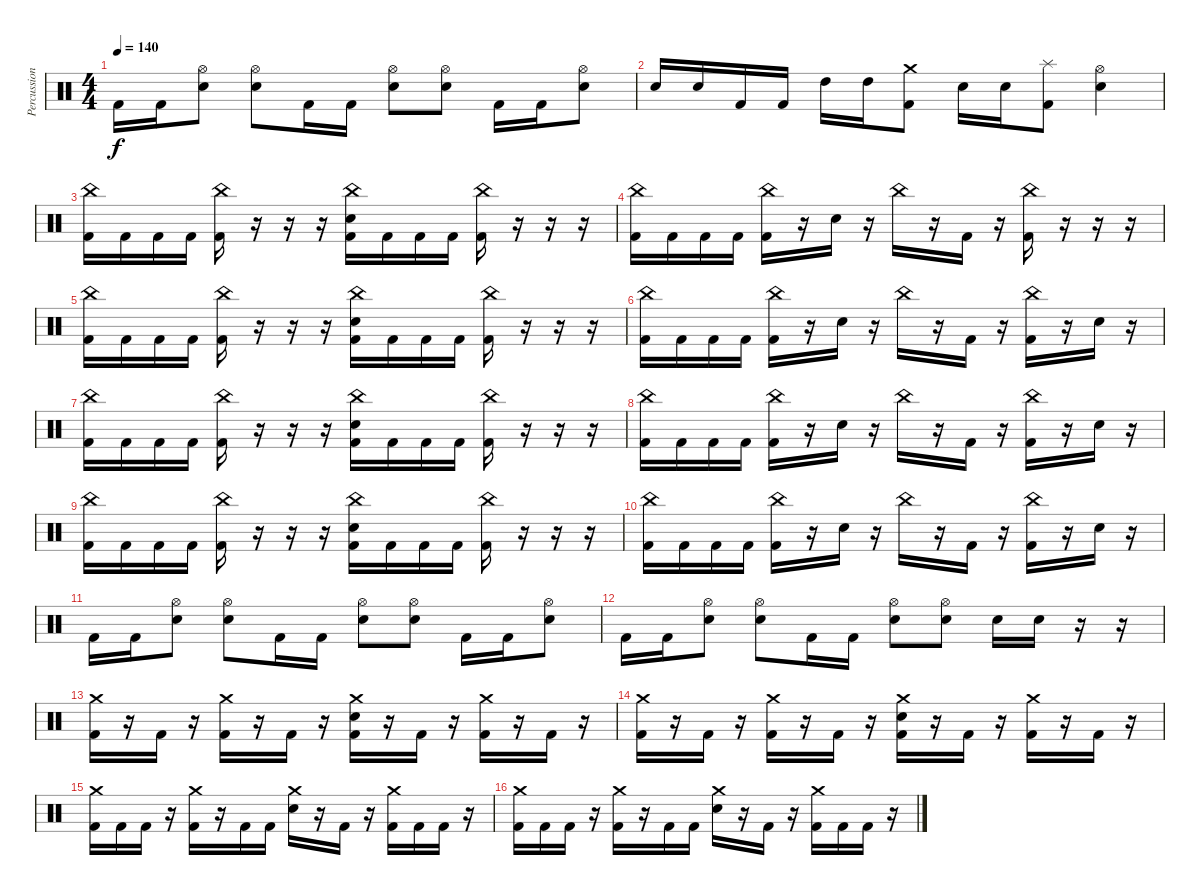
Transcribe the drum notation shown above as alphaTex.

\track ("Percussion" "Percussion") {instrument percussion}
\staff {score}
\articulation defaults
\ts (4 4)
\tempo 140
\clef neutral
\ks c "Kick (hit) 2".16{dy f} "Kick (hit) 2".16
("Hi-Hat (open)" "Electric Snare (hit)").8 ("Hi-Hat (open)" "Electric Snare (hit)").8 "Kick (hit) 2".16 "Kick (hit) 2".16 ("Hi-Hat (open)" "Electric Snare (hit)").8 ("Hi-Hat (open)" "Electric Snare (hit)").8 "Kick (hit) 2".16 "Kick (hit) 2".16 ("Hi-Hat (open)" "Electric Snare (hit)").8 |
"Electric Snare (hit)".16 "Electric Snare (hit)".16 "Kick (hit) 2".16 "Kick (hit) 2".16 "High Tom (hit)".16 "High Tom (hit)".16 ("Crash medium (hit)" "Kick (hit) 2").8 "Electric Snare (hit)".16 "Electric Snare (hit)".16 ("Splash (hit)" "Kick (hit) 2").8 ("Hi-Hat (open)" "Electric Snare (hit)").4 |
("China (hit)" "Kick (hit) 2").16 "Kick (hit) 2".16 "Kick (hit) 2".16 "Kick (hit) 2".16 ("China (hit)" "Kick (hit) 2").16 r.16 r.16 r.16 ("China (hit)" "Electric Snare (hit)" "Kick (hit) 2").16 "Kick (hit) 2".16 "Kick (hit) 2".16 "Kick (hit) 2".16 ("China (hit)" "Kick (hit) 2").16 r.16 r.16 r.16 |
("China (hit)" "Kick (hit) 2").16 "Kick (hit) 2".16 "Kick (hit) 2".16 "Kick (hit) 2".16 ("China (hit)" "Kick (hit) 2").16 r.16 "Electric Snare (hit)".16 r.16 "China (hit)".16 r.16 "Kick (hit) 2".16 r.16 ("China (hit)" "Kick (hit) 2").16 r.16 r.16 r.16 |
("China (hit)" "Kick (hit) 2").16 "Kick (hit) 2".16 "Kick (hit) 2".16 "Kick (hit) 2".16 ("China (hit)" "Kick (hit) 2").16 r.16 r.16 r.16 ("China (hit)" "Electric Snare (hit)" "Kick (hit) 2").16 "Kick (hit) 2".16 "Kick (hit) 2".16 "Kick (hit) 2".16 ("China (hit)" "Kick (hit) 2").16 r.16 r.16 r.16 |
("China (hit)" "Kick (hit) 2").16 "Kick (hit) 2".16 "Kick (hit) 2".16 "Kick (hit) 2".16 ("China (hit)" "Kick (hit) 2").16 r.16 "Electric Snare (hit)".16 r.16 "China (hit)".16 r.16 "Kick (hit) 2".16 r.16 ("China (hit)" "Kick (hit) 2").16 r.16 "Electric Snare (hit)".16 r.16 |
("China (hit)" "Kick (hit) 2").16 "Kick (hit) 2".16 "Kick (hit) 2".16 "Kick (hit) 2".16 ("China (hit)" "Kick (hit) 2").16 r.16 r.16 r.16 ("China (hit)" "Electric Snare (hit)" "Kick (hit) 2").16 "Kick (hit) 2".16 "Kick (hit) 2".16 "Kick (hit) 2".16 ("China (hit)" "Kick (hit) 2").16 r.16 r.16 r.16 |
("China (hit)" "Kick (hit) 2").16 "Kick (hit) 2".16 "Kick (hit) 2".16 "Kick (hit) 2".16 ("China (hit)" "Kick (hit) 2").16 r.16 "Electric Snare (hit)".16 r.16 "China (hit)".16 r.16 "Kick (hit) 2".16 r.16 ("China (hit)" "Kick (hit) 2").16 r.16 "Electric Snare (hit)".16 r.16 |
("China (hit)" "Kick (hit) 2").16 "Kick (hit) 2".16 "Kick (hit) 2".16 "Kick (hit) 2".16 ("China (hit)" "Kick (hit) 2").16 r.16 r.16 r.16 ("China (hit)" "Electric Snare (hit)" "Kick (hit) 2").16 "Kick (hit) 2".16 "Kick (hit) 2".16 "Kick (hit) 2".16 ("China (hit)" "Kick (hit) 2").16 r.16 r.16 r.16 |
("China (hit)" "Kick (hit) 2").16 "Kick (hit) 2".16 "Kick (hit) 2".16 "Kick (hit) 2".16 ("China (hit)" "Kick (hit) 2").16 r.16 "Electric Snare (hit)".16 r.16 "China (hit)".16 r.16 "Kick (hit) 2".16 r.16 ("China (hit)" "Kick (hit) 2").16 r.16 "Electric Snare (hit)".16 r.16 |
"Kick (hit) 2".16 "Kick (hit) 2".16 ("Hi-Hat (open)" "Electric Snare (hit)").8 ("Hi-Hat (open)" "Electric Snare (hit)").8 "Kick (hit) 2".16 "Kick (hit) 2".16 ("Hi-Hat (open)" "Electric Snare (hit)").8 ("Hi-Hat (open)" "Electric Snare (hit)").8 "Kick (hit) 2".16 "Kick (hit) 2".16 ("Hi-Hat (open)" "Electric Snare (hit)").8 |
"Kick (hit) 2".16 "Kick (hit) 2".16 ("Hi-Hat (open)" "Electric Snare (hit)").8 ("Hi-Hat (open)" "Electric Snare (hit)").8 "Kick (hit) 2".16 "Kick (hit) 2".16 ("Hi-Hat (open)" "Electric Snare (hit)").8 ("Hi-Hat (open)" "Electric Snare (hit)").8 "Electric Snare (hit)".16 "Electric Snare (hit)".16 r.16 r.16 |
("Crash medium (hit)" "Kick (hit) 2").16 r.16 "Kick (hit) 2".16 r.16 ("Crash medium (hit)" "Kick (hit) 2").16 r.16 "Kick (hit) 2".16 r.16 ("Crash medium (hit)" "Kick (hit) 2" "Electric Snare (hit)").16 r.16 "Kick (hit) 2".16 r.16 ("Crash medium (hit)" "Kick (hit) 2").16 r.16 "Kick (hit) 2".16 r.16 |
("Crash medium (hit)" "Kick (hit) 2").16 r.16 "Kick (hit) 2".16 r.16 ("Crash medium (hit)" "Kick (hit) 2").16 r.16 "Kick (hit) 2".16 r.16 ("Crash medium (hit)" "Kick (hit) 2" "Electric Snare (hit)").16 r.16 "Kick (hit) 2".16 r.16 ("Crash medium (hit)" "Kick (hit) 2").16 r.16 "Kick (hit) 2".16 r.16 |
("Crash medium (hit)" "Kick (hit) 2").16 "Kick (hit) 2".16 "Kick (hit) 2".16 r.16 ("Crash medium (hit)" "Kick (hit) 2").16 r.16 "Kick (hit) 2".16 "Kick (hit) 2".16 ("Crash medium (hit)" "Electric Snare (hit)").16 r.16 "Kick (hit) 2".16 r.16 ("Crash medium (hit)" "Kick (hit) 2").16 "Kick (hit) 2".16 "Kick (hit) 2".16 r.16 |
("Crash medium (hit)" "Kick (hit) 2").16 "Kick (hit) 2".16 "Kick (hit) 2".16 r.16 ("Crash medium (hit)" "Kick (hit) 2").16 r.16 "Kick (hit) 2".16 "Kick (hit) 2".16 ("Crash medium (hit)" "Electric Snare (hit)").16 r.16 "Kick (hit) 2".16 r.16 ("Crash medium (hit)" "Kick (hit) 2").16 "Kick (hit) 2".16 "Kick (hit) 2".16 r.16
